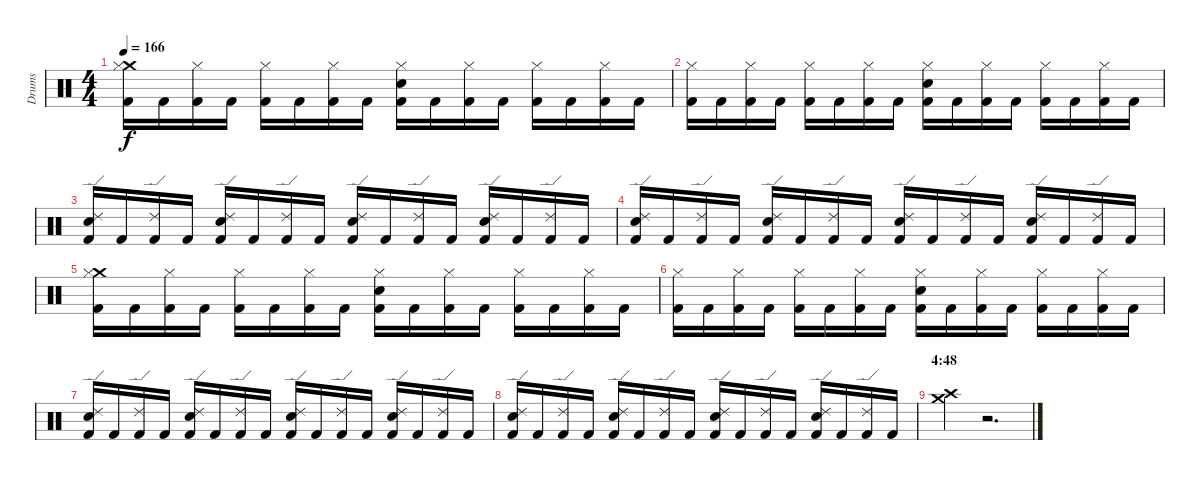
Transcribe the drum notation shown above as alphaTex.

\track ("Drums" "Drums") {instrument percussion}
\staff {score}
\articulation defaults
\ts (4 4)
\tempo 166
\clef neutral
\ks c
("Crash medium (hit)" "Hi-Hat (closed)" "Kick (hit) 2").16{dy f} "Kick (hit) 2".16 ("Hi-Hat (closed)" "Kick (hit) 2").16 "Kick (hit) 2".16 ("Hi-Hat (closed)" "Kick (hit) 2").16 "Kick (hit) 2".16 ("Hi-Hat (closed)" "Kick (hit) 2").16 "Kick (hit) 2".16 ("Hi-Hat (closed)" "Electric Snare (hit)" "Kick (hit) 2").16 "Kick (hit) 2".16 ("Hi-Hat (closed)" "Kick (hit) 2").16 "Kick (hit) 2".16 ("Hi-Hat (closed)" "Kick (hit) 2").16 "Kick (hit) 2".16 ("Hi-Hat (closed)" "Kick (hit) 2").16 "Kick (hit) 2".16 |
("Hi-Hat (closed)" "Kick (hit) 2").16 "Kick (hit) 2".16 ("Hi-Hat (closed)" "Kick (hit) 2").16 "Kick (hit) 2".16 ("Hi-Hat (closed)" "Kick (hit) 2").16 "Kick (hit) 2".16 ("Hi-Hat (closed)" "Kick (hit) 2").16 "Kick (hit) 2".16 ("Hi-Hat (closed)" "Electric Snare (hit)" "Kick (hit) 2").16 "Kick (hit) 2".16 ("Hi-Hat (closed)" "Kick (hit) 2").16 "Kick (hit) 2".16 ("Hi-Hat (closed)" "Kick (hit) 2").16 "Kick (hit) 2".16 ("Hi-Hat (closed)" "Kick (hit) 2").16 "Kick (hit) 2".16 |
("Ride (edge) 2" "Electric Snare (hit)" "Kick (hit) 2").16 "Kick (hit) 2".16 ("Ride (edge) 2" "Kick (hit) 2").16 "Kick (hit) 2".16 ("Ride (edge) 2" "Electric Snare (hit)" "Kick (hit) 2").16 "Kick (hit) 2".16 ("Ride (edge) 2" "Kick (hit) 2").16 "Kick (hit) 2".16 ("Ride (edge) 2" "Electric Snare (hit)" "Kick (hit) 2").16 "Kick (hit) 2".16 ("Ride (edge) 2" "Kick (hit) 2").16 "Kick (hit) 2".16 ("Ride (edge) 2" "Electric Snare (hit)" "Kick (hit) 2").16 "Kick (hit) 2".16 ("Ride (edge) 2" "Kick (hit) 2").16 "Kick (hit) 2".16 |
("Ride (edge) 2" "Electric Snare (hit)" "Kick (hit) 2").16 "Kick (hit) 2".16 ("Ride (edge) 2" "Kick (hit) 2").16 "Kick (hit) 2".16 ("Ride (edge) 2" "Electric Snare (hit)" "Kick (hit) 2").16 "Kick (hit) 2".16 ("Ride (edge) 2" "Kick (hit) 2").16 "Kick (hit) 2".16 ("Ride (edge) 2" "Electric Snare (hit)" "Kick (hit) 2").16 "Kick (hit) 2".16 ("Ride (edge) 2" "Kick (hit) 2").16 "Kick (hit) 2".16 ("Ride (edge) 2" "Electric Snare (hit)" "Kick (hit) 2").16 "Kick (hit) 2".16 ("Ride (edge) 2" "Kick (hit) 2").16 "Kick (hit) 2".16 |
("Crash medium (hit)" "Hi-Hat (closed)" "Kick (hit) 2").16 "Kick (hit) 2".16 ("Hi-Hat (closed)" "Kick (hit) 2").16 "Kick (hit) 2".16 ("Hi-Hat (closed)" "Kick (hit) 2").16 "Kick (hit) 2".16 ("Hi-Hat (closed)" "Kick (hit) 2").16 "Kick (hit) 2".16 ("Hi-Hat (closed)" "Electric Snare (hit)" "Kick (hit) 2").16 "Kick (hit) 2".16 ("Hi-Hat (closed)" "Kick (hit) 2").16 "Kick (hit) 2".16 ("Hi-Hat (closed)" "Kick (hit) 2").16 "Kick (hit) 2".16 ("Hi-Hat (closed)" "Kick (hit) 2").16 "Kick (hit) 2".16 |
("Hi-Hat (closed)" "Kick (hit) 2").16 "Kick (hit) 2".16 ("Hi-Hat (closed)" "Kick (hit) 2").16 "Kick (hit) 2".16 ("Hi-Hat (closed)" "Kick (hit) 2").16 "Kick (hit) 2".16 ("Hi-Hat (closed)" "Kick (hit) 2").16 "Kick (hit) 2".16 ("Hi-Hat (closed)" "Electric Snare (hit)" "Kick (hit) 2").16 "Kick (hit) 2".16 ("Hi-Hat (closed)" "Kick (hit) 2").16 "Kick (hit) 2".16 ("Hi-Hat (closed)" "Kick (hit) 2").16 "Kick (hit) 2".16 ("Hi-Hat (closed)" "Kick (hit) 2").16 "Kick (hit) 2".16 |
("Ride (edge) 2" "Electric Snare (hit)" "Kick (hit) 2").16 "Kick (hit) 2".16 ("Ride (edge) 2" "Kick (hit) 2").16 "Kick (hit) 2".16 ("Ride (edge) 2" "Electric Snare (hit)" "Kick (hit) 2").16 "Kick (hit) 2".16 ("Ride (edge) 2" "Kick (hit) 2").16 "Kick (hit) 2".16 ("Ride (edge) 2" "Electric Snare (hit)" "Kick (hit) 2").16 "Kick (hit) 2".16 ("Ride (edge) 2" "Kick (hit) 2").16 "Kick (hit) 2".16 ("Ride (edge) 2" "Electric Snare (hit)" "Kick (hit) 2").16 "Kick (hit) 2".16 ("Ride (edge) 2" "Kick (hit) 2").16 "Kick (hit) 2".16 |
("Ride (edge) 2" "Electric Snare (hit)" "Kick (hit) 2").16 "Kick (hit) 2".16 ("Ride (edge) 2" "Kick (hit) 2").16 "Kick (hit) 2".16 ("Ride (edge) 2" "Electric Snare (hit)" "Kick (hit) 2").16 "Kick (hit) 2".16 ("Ride (edge) 2" "Kick (hit) 2").16 "Kick (hit) 2".16 ("Ride (edge) 2" "Electric Snare (hit)" "Kick (hit) 2").16 "Kick (hit) 2".16 ("Ride (edge) 2" "Kick (hit) 2").16 "Kick (hit) 2".16 ("Ride (edge) 2" "Electric Snare (hit)" "Kick (hit) 2").16 "Kick (hit) 2".16 ("Ride (edge) 2" "Kick (hit) 2").16 "Kick (hit) 2".16 |
\section ("" "4:48")
("Crash high (hit)" "Crash medium (hit)").4 r.2{d}
